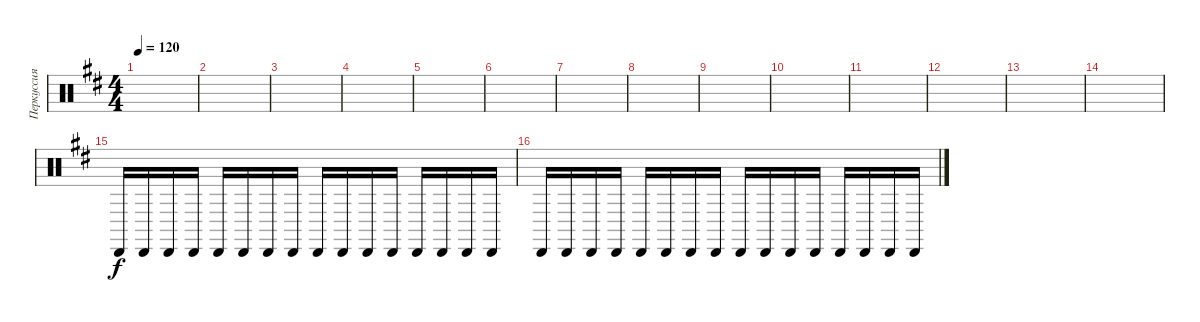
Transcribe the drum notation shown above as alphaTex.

\track ("Перкуссия" "Перкуссия") {instrument percussion}
\staff {score}
\articulation defaults
\ts (4 4)
\tempo 120
\clef neutral
\ks bminor
|
|
|
|
|
|
|
|
|
|
|
|
|
|
"Cabasa (hit)".16 "Cabasa (hit)".16 "Cabasa (hit)".16 "Cabasa (hit)".16 "Cabasa (hit)".16 "Cabasa (hit)".16 "Cabasa (hit)".16 "Cabasa (hit)".16 "Cabasa (hit)".16 "Cabasa (hit)".16 "Cabasa (hit)".16 "Cabasa (hit)".16 "Cabasa (hit)".16 "Cabasa (hit)".16 "Cabasa (hit)".16 "Cabasa (hit)".16 |
"Cabasa (hit)".16 "Cabasa (hit)".16 "Cabasa (hit)".16 "Cabasa (hit)".16 "Cabasa (hit)".16 "Cabasa (hit)".16 "Cabasa (hit)".16 "Cabasa (hit)".16 "Cabasa (hit)".16 "Cabasa (hit)".16 "Cabasa (hit)".16 "Cabasa (hit)".16 "Cabasa (hit)".16 "Cabasa (hit)".16 "Cabasa (hit)".16 "Cabasa (hit)".16
